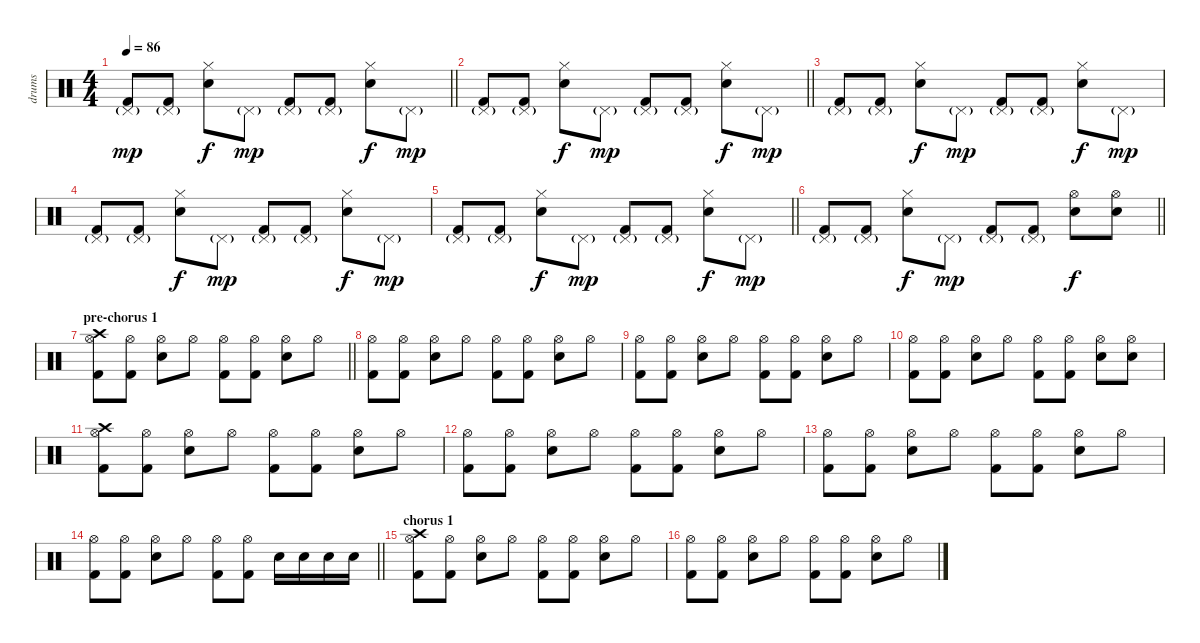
\track ("drums" "drums") {instrument percussion}
\staff {score}
\articulation defaults
\ts (4 4)
\tempo 86
\clef neutral
\barLineRight lightlight
\ks c
("Kick (hit) 2" "Pedal Hi-Hat (hit)"{g}).8{dy mp} ("Kick (hit) 2" "Pedal Hi-Hat (hit)"{g}).8 ("Electric Snare (hit)" "Hi-Hat (closed)").8{dy f} "Pedal Hi-Hat (hit)"{g}.8{dy mp} ("Kick (hit) 2" "Pedal Hi-Hat (hit)"{g}).8 ("Kick (hit) 2" "Pedal Hi-Hat (hit)"{g}).8 ("Electric Snare (hit)" "Hi-Hat (closed)").8{dy f} "Pedal Hi-Hat (hit)"{g}.8{dy mp} |
\barLineRight lightlight
("Kick (hit) 2" "Pedal Hi-Hat (hit)"{g}).8 ("Kick (hit) 2" "Pedal Hi-Hat (hit)"{g}).8 ("Electric Snare (hit)" "Hi-Hat (closed)").8{dy f} "Pedal Hi-Hat (hit)"{g}.8{dy mp} ("Kick (hit) 2" "Pedal Hi-Hat (hit)"{g}).8 ("Kick (hit) 2" "Pedal Hi-Hat (hit)"{g}).8 ("Electric Snare (hit)" "Hi-Hat (closed)").8{dy f} "Pedal Hi-Hat (hit)"{g}.8{dy mp} |
("Kick (hit) 2" "Pedal Hi-Hat (hit)"{g}).8 ("Kick (hit) 2" "Pedal Hi-Hat (hit)"{g}).8 ("Electric Snare (hit)" "Hi-Hat (closed)").8{dy f} "Pedal Hi-Hat (hit)"{g}.8{dy mp} ("Kick (hit) 2" "Pedal Hi-Hat (hit)"{g}).8 ("Kick (hit) 2" "Pedal Hi-Hat (hit)"{g}).8 ("Electric Snare (hit)" "Hi-Hat (closed)").8{dy f} "Pedal Hi-Hat (hit)"{g}.8{dy mp} |
("Kick (hit) 2" "Pedal Hi-Hat (hit)"{g}).8 ("Kick (hit) 2" "Pedal Hi-Hat (hit)"{g}).8 ("Electric Snare (hit)" "Hi-Hat (closed)").8{dy f} "Pedal Hi-Hat (hit)"{g}.8{dy mp} ("Kick (hit) 2" "Pedal Hi-Hat (hit)"{g}).8 ("Kick (hit) 2" "Pedal Hi-Hat (hit)"{g}).8 ("Electric Snare (hit)" "Hi-Hat (closed)").8{dy f} "Pedal Hi-Hat (hit)"{g}.8{dy mp} |
\barLineRight lightlight
("Kick (hit) 2" "Pedal Hi-Hat (hit)"{g}).8 ("Kick (hit) 2" "Pedal Hi-Hat (hit)"{g}).8 ("Electric Snare (hit)" "Hi-Hat (closed)").8{dy f} "Pedal Hi-Hat (hit)"{g}.8{dy mp} ("Kick (hit) 2" "Pedal Hi-Hat (hit)"{g}).8 ("Kick (hit) 2" "Pedal Hi-Hat (hit)"{g}).8 ("Electric Snare (hit)" "Hi-Hat (closed)").8{dy f} "Pedal Hi-Hat (hit)"{g}.8{dy mp} |
\barLineRight lightlight
("Kick (hit) 2" "Pedal Hi-Hat (hit)"{g}).8 ("Kick (hit) 2" "Pedal Hi-Hat (hit)"{g}).8 ("Electric Snare (hit)" "Hi-Hat (closed)").8{dy f} "Pedal Hi-Hat (hit)"{g}.8{dy mp} ("Kick (hit) 2" "Pedal Hi-Hat (hit)"{g}).8 ("Kick (hit) 2" "Pedal Hi-Hat (hit)"{g}).8 ("Electric Snare (hit)" "Hi-Hat (open)").8{dy f} ("Electric Snare (hit)" "Hi-Hat (open)").8 |
\section ("" "pre-chorus 1")
\barLineRight lightlight
("Kick (hit) 2" "Hi-Hat (open)" "Crash high (hit)").8 ("Kick (hit) 2" "Hi-Hat (open)").8 ("Electric Snare (hit)" "Hi-Hat (open)").8 "Hi-Hat (open)".8 ("Kick (hit) 2" "Hi-Hat (open)").8 ("Kick (hit) 2" "Hi-Hat (open)").8 ("Electric Snare (hit)" "Hi-Hat (open)").8 "Hi-Hat (open)".8 |
("Kick (hit) 2" "Hi-Hat (open)").8 ("Kick (hit) 2" "Hi-Hat (open)").8 ("Electric Snare (hit)" "Hi-Hat (open)").8 "Hi-Hat (open)".8 ("Kick (hit) 2" "Hi-Hat (open)").8 ("Kick (hit) 2" "Hi-Hat (open)").8 ("Electric Snare (hit)" "Hi-Hat (open)").8 "Hi-Hat (open)".8 |
("Kick (hit) 2" "Hi-Hat (open)").8 ("Kick (hit) 2" "Hi-Hat (open)").8 ("Electric Snare (hit)" "Hi-Hat (open)").8 "Hi-Hat (open)".8 ("Kick (hit) 2" "Hi-Hat (open)").8 ("Kick (hit) 2" "Hi-Hat (open)").8 ("Electric Snare (hit)" "Hi-Hat (open)").8 "Hi-Hat (open)".8 |
("Kick (hit) 2" "Hi-Hat (open)").8 ("Kick (hit) 2" "Hi-Hat (open)").8 ("Electric Snare (hit)" "Hi-Hat (open)").8 "Hi-Hat (open)".8 ("Kick (hit) 2" "Hi-Hat (open)").8 ("Kick (hit) 2" "Hi-Hat (open)").8 ("Electric Snare (hit)" "Hi-Hat (open)").8 ("Electric Snare (hit)" "Hi-Hat (open)").8 |
("Kick (hit) 2" "Hi-Hat (open)" "Crash high (hit)").8 ("Kick (hit) 2" "Hi-Hat (open)").8 ("Electric Snare (hit)" "Hi-Hat (open)").8 "Hi-Hat (open)".8 ("Kick (hit) 2" "Hi-Hat (open)").8 ("Kick (hit) 2" "Hi-Hat (open)").8 ("Electric Snare (hit)" "Hi-Hat (open)").8 "Hi-Hat (open)".8 |
("Kick (hit) 2" "Hi-Hat (open)").8 ("Kick (hit) 2" "Hi-Hat (open)").8 ("Electric Snare (hit)" "Hi-Hat (open)").8 "Hi-Hat (open)".8 ("Kick (hit) 2" "Hi-Hat (open)").8 ("Kick (hit) 2" "Hi-Hat (open)").8 ("Electric Snare (hit)" "Hi-Hat (open)").8 "Hi-Hat (open)".8 |
("Kick (hit) 2" "Hi-Hat (open)").8 ("Kick (hit) 2" "Hi-Hat (open)").8 ("Electric Snare (hit)" "Hi-Hat (open)").8 "Hi-Hat (open)".8 ("Kick (hit) 2" "Hi-Hat (open)").8 ("Kick (hit) 2" "Hi-Hat (open)").8 ("Electric Snare (hit)" "Hi-Hat (open)").8 "Hi-Hat (open)".8 |
\barLineRight lightlight
("Kick (hit) 2" "Hi-Hat (open)").8 ("Kick (hit) 2" "Hi-Hat (open)").8 ("Electric Snare (hit)" "Hi-Hat (open)").8 "Hi-Hat (open)".8 ("Kick (hit) 2" "Hi-Hat (open)").8 ("Kick (hit) 2" "Hi-Hat (open)").8 "Electric Snare (hit)".16 "Electric Snare (hit)".16 "Electric Snare (hit)".16 "Electric Snare (hit)".16 |
\section ("" "chorus 1")
("Kick (hit) 2" "Hi-Hat (open)" "Crash high (hit)").8 ("Kick (hit) 2" "Hi-Hat (open)").8 ("Electric Snare (hit)" "Hi-Hat (open)").8 "Hi-Hat (open)".8 ("Kick (hit) 2" "Hi-Hat (open)").8 ("Kick (hit) 2" "Hi-Hat (open)").8 ("Electric Snare (hit)" "Hi-Hat (open)").8 "Hi-Hat (open)".8 |
("Kick (hit) 2" "Hi-Hat (open)").8 ("Kick (hit) 2" "Hi-Hat (open)").8 ("Electric Snare (hit)" "Hi-Hat (open)").8 "Hi-Hat (open)".8 ("Kick (hit) 2" "Hi-Hat (open)").8 ("Kick (hit) 2" "Hi-Hat (open)").8 ("Electric Snare (hit)" "Hi-Hat (open)").8 "Hi-Hat (open)".8
